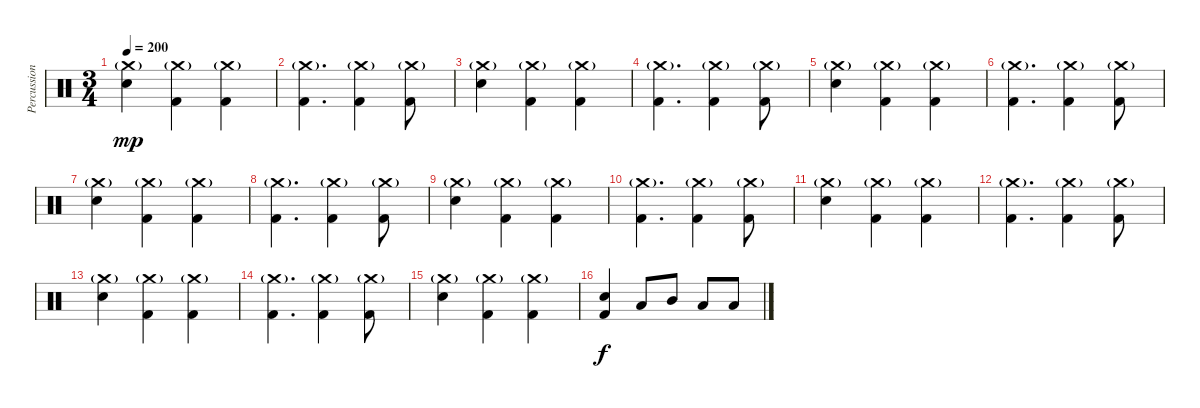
\track ("Percussions" "Percussion") {instrument percussion}
\staff {score}
\articulation defaults
\ts (3 4)
\tempo 200
\clef neutral
\ks c
("Crash medium (hit)"{g} "Electric Snare (hit)").4{dy mp} ("Crash medium (hit)"{g} "Kick (hit) 2").4 ("Crash medium (hit)"{g} "Kick (hit) 2").4 |
("Crash medium (hit)"{g} "Kick (hit) 2").4{d} ("Crash medium (hit)"{g} "Kick (hit) 2").4 ("Crash medium (hit)"{g} "Kick (hit) 2").8 |
("Crash medium (hit)"{g} "Electric Snare (hit)").4 ("Crash medium (hit)"{g} "Kick (hit) 2").4 ("Crash medium (hit)"{g} "Kick (hit) 2").4 |
("Crash medium (hit)"{g} "Kick (hit) 2").4{d} ("Crash medium (hit)"{g} "Kick (hit) 2").4 ("Crash medium (hit)"{g} "Kick (hit) 2").8 |
("Crash medium (hit)"{g} "Electric Snare (hit)").4 ("Crash medium (hit)"{g} "Kick (hit) 2").4 ("Crash medium (hit)"{g} "Kick (hit) 2").4 |
("Crash medium (hit)"{g} "Kick (hit) 2").4{d} ("Crash medium (hit)"{g} "Kick (hit) 2").4 ("Crash medium (hit)"{g} "Kick (hit) 2").8 |
("Crash medium (hit)"{g} "Electric Snare (hit)").4 ("Crash medium (hit)"{g} "Kick (hit) 2").4 ("Crash medium (hit)"{g} "Kick (hit) 2").4 |
("Crash medium (hit)"{g} "Kick (hit) 2").4{d} ("Crash medium (hit)"{g} "Kick (hit) 2").4 ("Crash medium (hit)"{g} "Kick (hit) 2").8 |
("Crash medium (hit)"{g} "Electric Snare (hit)").4 ("Crash medium (hit)"{g} "Kick (hit) 2").4 ("Crash medium (hit)"{g} "Kick (hit) 2").4 |
("Crash medium (hit)"{g} "Kick (hit) 2").4{d} ("Crash medium (hit)"{g} "Kick (hit) 2").4 ("Crash medium (hit)"{g} "Kick (hit) 2").8 |
("Crash medium (hit)"{g} "Electric Snare (hit)").4 ("Crash medium (hit)"{g} "Kick (hit) 2").4 ("Crash medium (hit)"{g} "Kick (hit) 2").4 |
("Crash medium (hit)"{g} "Kick (hit) 2").4{d} ("Crash medium (hit)"{g} "Kick (hit) 2").4 ("Crash medium (hit)"{g} "Kick (hit) 2").8 |
("Crash medium (hit)"{g} "Electric Snare (hit)").4 ("Crash medium (hit)"{g} "Kick (hit) 2").4 ("Crash medium (hit)"{g} "Kick (hit) 2").4 |
("Crash medium (hit)"{g} "Kick (hit) 2").4{d} ("Crash medium (hit)"{g} "Kick (hit) 2").4 ("Crash medium (hit)"{g} "Kick (hit) 2").8 |
("Crash medium (hit)"{g} "Electric Snare (hit)").4 ("Crash medium (hit)"{g} "Kick (hit) 2").4 ("Crash medium (hit)"{g} "Kick (hit) 2").4 |
("Electric Snare (hit)" "Kick (hit) 2").4{dy f} "Low Tom (hit)".8 "Mid Tom (hit)".8 "Low Tom (hit)".8 "Low Floor Tom (hit)".8
